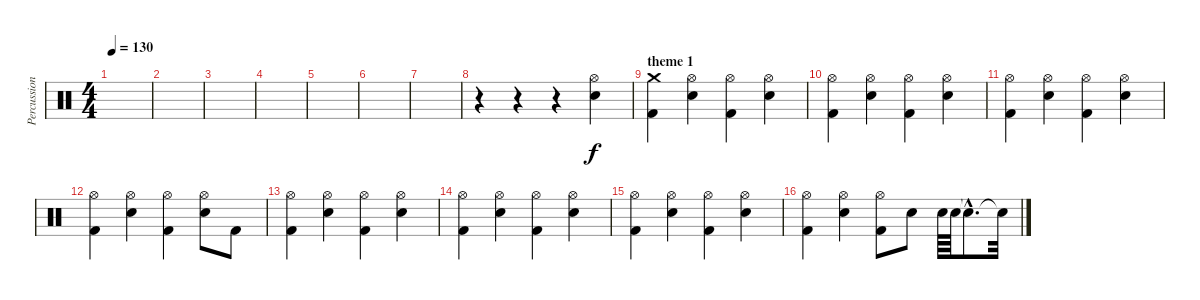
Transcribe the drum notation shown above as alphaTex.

\track ("Percussions" "Percussion") {instrument percussion}
\staff {score}
\articulation defaults
\ts (4 4)
\tempo 130
\clef neutral
\ks c
|
|
|
|
|
|
|
r.4 r.4 r.4 ("Hi-Hat (open)" "Electric Snare (hit)").4 |
\section ("" "theme 1")
("Crash medium (hit)" "Kick (hit) 2").4 ("Hi-Hat (open)" "Electric Snare (hit)").4 ("Hi-Hat (open)" "Kick (hit) 2").4 ("Hi-Hat (open)" "Electric Snare (hit)").4 |
("Hi-Hat (open)" "Kick (hit) 2").4 ("Hi-Hat (open)" "Electric Snare (hit)").4 ("Hi-Hat (open)" "Kick (hit) 2").4 ("Hi-Hat (open)" "Electric Snare (hit)").4 |
("Hi-Hat (open)" "Kick (hit) 2").4 ("Hi-Hat (open)" "Electric Snare (hit)").4 ("Hi-Hat (open)" "Kick (hit) 2").4 ("Hi-Hat (open)" "Electric Snare (hit)").4 |
("Hi-Hat (open)" "Kick (hit) 2").4 ("Hi-Hat (open)" "Electric Snare (hit)").4 ("Hi-Hat (open)" "Kick (hit) 2").4 ("Hi-Hat (open)" "Electric Snare (hit)").8 "Kick (hit) 2".8 |
("Hi-Hat (open)" "Kick (hit) 2").4 ("Hi-Hat (open)" "Electric Snare (hit)").4 ("Hi-Hat (open)" "Kick (hit) 2").4 ("Hi-Hat (open)" "Electric Snare (hit)").4 |
("Hi-Hat (open)" "Kick (hit) 2").4 ("Hi-Hat (open)" "Electric Snare (hit)").4 ("Hi-Hat (open)" "Kick (hit) 2").4 ("Hi-Hat (open)" "Electric Snare (hit)").4 |
("Hi-Hat (open)" "Kick (hit) 2").4 ("Hi-Hat (open)" "Electric Snare (hit)").4 ("Hi-Hat (open)" "Kick (hit) 2").4 ("Hi-Hat (open)" "Electric Snare (hit)").4 |
("Hi-Hat (open)" "Kick (hit) 2").4 ("Hi-Hat (open)" "Electric Snare (hit)").4 ("Hi-Hat (open)" "Kick (hit) 2").8 "Electric Snare (hit)".8 "Electric Snare (hit)".64 "Electric Snare (hit)".64 "Snare (hit)"{hac t}.8{d} "Snare (hit)"{t}.32
